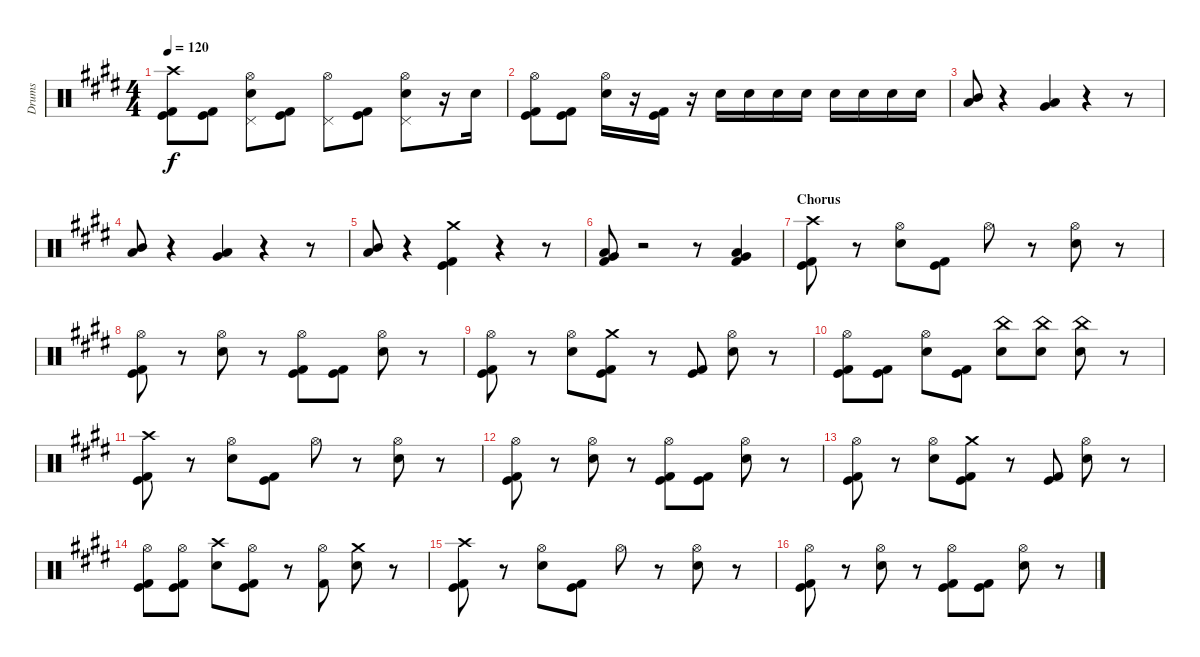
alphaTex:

\track ("Drums" "Drums") {instrument percussion}
\staff {score}
\articulation defaults
\ts (4 4)
\tempo 120
\clef neutral
\ks e
("Crash high (hit)" "Kick (hit)" "Kick (hit) 2").8{dy f} ("Kick (hit) 2" "Kick (hit)").8 ("Hi-Hat (open)" "Pedal Hi-Hat (hit)" "Electric Snare (hit)").8 ("Kick (hit)" "Kick (hit) 2").8 ("Hi-Hat (open)" "Pedal Hi-Hat (hit)").8 ("Kick (hit) 2" "Kick (hit)").8 ("Hi-Hat (open)" "Pedal Hi-Hat (hit)" "Electric Snare (hit)").8 r.16 "Electric Snare (hit)".16 |
("Hi-Hat (open)" "Kick (hit)" "Kick (hit) 2").8 ("Kick (hit)" "Kick (hit) 2").8 ("Hi-Hat (open)" "Electric Snare (hit)").16 r.16 ("Kick (hit)" "Kick (hit) 2").16 r.16 "Electric Snare (hit)".16 "Electric Snare (hit)".16 "Electric Snare (hit)".16 "Electric Snare (hit)".16 "Electric Snare (hit)".16 "Electric Snare (hit)".16 "Electric Snare (hit)".16 "Electric Snare (hit)".16 |
("Mid Tom (hit)" "Low Tom (hit)").8 r.4 ("Low Tom (hit)" "Very Low Tom (hit)").4 r.4 r.8 |
("Mid Tom (hit)" "Low Tom (hit)").8 r.4 ("Low Tom (hit)" "Very Low Tom (hit)").4 r.4 r.8 |
("Mid Tom (hit)" "Low Tom (hit)").8 r.4 ("Crash medium (hit)" "Kick (hit)" "Kick (hit) 2").4 r.4 r.8 |
("Low Tom (hit)" "Very Low Tom (hit)" "Kick (hit) 2").8 r.2 r.8 ("Low Tom (hit)" "Very Low Tom (hit)" "Kick (hit) 2").4 |
\section ("" "Chorus")
("Crash high (hit)" "Kick (hit)" "Kick (hit) 2").8 r.8 ("Hi-Hat (open)" "Electric Snare (hit)").8 ("Kick (hit)" "Kick (hit) 2").8 "Hi-Hat (open)".8 r.8 ("Hi-Hat (open)" "Electric Snare (hit)").8 r.8 |
("Hi-Hat (open)" "Kick (hit)" "Kick (hit) 2").8 r.8 ("Hi-Hat (open)" "Electric Snare (hit)").8 r.8 ("Hi-Hat (open)" "Kick (hit)" "Kick (hit) 2").8 ("Kick (hit)" "Kick (hit) 2").8 ("Hi-Hat (open)" "Electric Snare (hit)").8 r.8 |
("Hi-Hat (open)" "Kick (hit)" "Kick (hit) 2").8 r.8 ("Hi-Hat (open)" "Electric Snare (hit)").8 ("Crash medium (hit)" "Kick (hit)" "Kick (hit) 2").8 r.8 ("Kick (hit) 2" "Kick (hit)").8 ("Hi-Hat (open)" "Electric Snare (hit)").8 r.8 |
("Hi-Hat (open)" "Kick (hit)" "Kick (hit) 2").8 ("Kick (hit) 2" "Kick (hit)").8 ("Hi-Hat (open)" "Electric Snare (hit)").8 ("Kick (hit)" "Kick (hit) 2").8 ("China (hit)" "Electric Snare (hit)").8 ("China (hit)" "Electric Snare (hit)").8 ("China (hit)" "Electric Snare (hit)").8 r.8 |
("Crash high (hit)" "Kick (hit)" "Kick (hit) 2").8 r.8 ("Hi-Hat (open)" "Electric Snare (hit)").8 ("Kick (hit)" "Kick (hit) 2").8 "Hi-Hat (open)".8 r.8 ("Hi-Hat (open)" "Electric Snare (hit)").8 r.8 |
("Hi-Hat (open)" "Kick (hit)" "Kick (hit) 2").8 r.8 ("Hi-Hat (open)" "Electric Snare (hit)").8 r.8 ("Hi-Hat (open)" "Kick (hit)" "Kick (hit) 2").8 ("Kick (hit)" "Kick (hit) 2").8 ("Hi-Hat (open)" "Electric Snare (hit)").8 r.8 |
("Hi-Hat (open)" "Kick (hit)" "Kick (hit) 2").8 r.8 ("Hi-Hat (open)" "Electric Snare (hit)").8 ("Crash medium (hit)" "Kick (hit)" "Kick (hit) 2").8 r.8 ("Kick (hit) 2" "Kick (hit)").8 ("Hi-Hat (open)" "Electric Snare (hit)").8 r.8 |
("Hi-Hat (open)" "Kick (hit)" "Kick (hit) 2").8 ("Hi-Hat (open)" "Kick (hit) 2" "Kick (hit)").8 ("Crash high (hit)" "Electric Snare (hit)").8 ("Hi-Hat (open)" "Kick (hit)" "Kick (hit) 2").8 r.8 ("Hi-Hat (open)" "Kick (hit) 2").8 ("Crash medium (hit)" "Electric Snare (hit)").8 r.8 |
("Crash high (hit)" "Kick (hit)" "Kick (hit) 2").8 r.8 ("Hi-Hat (open)" "Electric Snare (hit)").8 ("Kick (hit)" "Kick (hit) 2").8 "Hi-Hat (open)".8 r.8 ("Hi-Hat (open)" "Electric Snare (hit)").8 r.8 |
("Hi-Hat (open)" "Kick (hit)" "Kick (hit) 2").8 r.8 ("Hi-Hat (open)" "Electric Snare (hit)").8 r.8 ("Hi-Hat (open)" "Kick (hit)" "Kick (hit) 2").8 ("Kick (hit)" "Kick (hit) 2").8 ("Hi-Hat (open)" "Electric Snare (hit)").8 r.8
